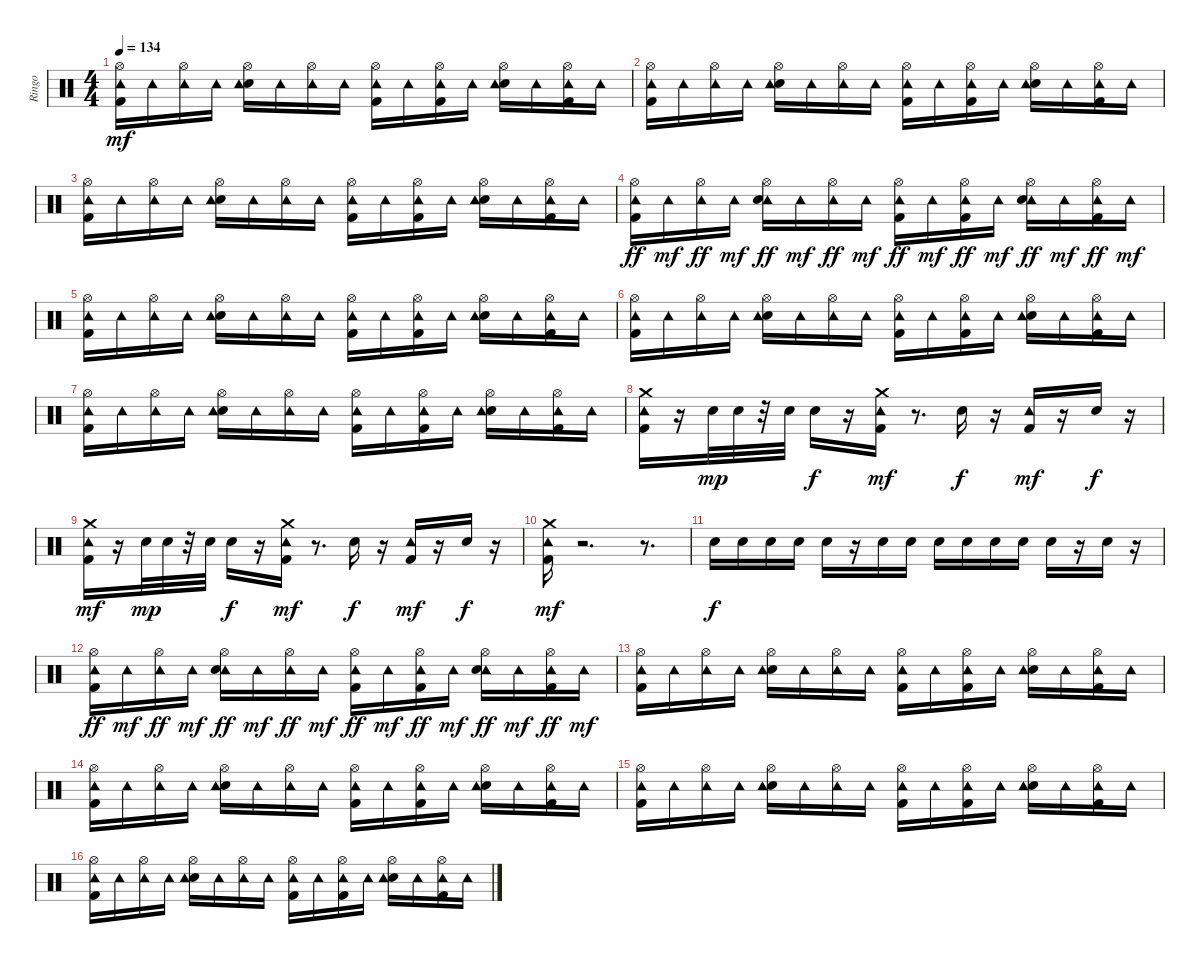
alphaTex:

\track ("Ringo" "Ringo") {instrument percussion}
\staff {score}
\articulation defaults
\ts (4 4)
\tempo 134
\clef neutral
\ks c
("Hi-Hat (open)" "Kick (hit) 2" "Tambourine (hit)").16{dy mf} "Tambourine (hit)".16 ("Hi-Hat (open)" "Tambourine (hit)").16 "Tambourine (hit)".16 ("Hi-Hat (open)" "Snare (hit) 2" "Tambourine (hit)").16 "Tambourine (hit)".16 ("Hi-Hat (open)" "Tambourine (hit)").16 "Tambourine (hit)".16 ("Hi-Hat (open)" "Kick (hit) 2" "Tambourine (hit)").16 "Tambourine (hit)".16 ("Hi-Hat (open)" "Kick (hit) 2" "Tambourine (hit)").16 "Tambourine (hit)".16 ("Hi-Hat (open)" "Snare (hit) 2" "Tambourine (hit)").16 "Tambourine (hit)".16 ("Hi-Hat (open)" "Kick (hit) 2" "Tambourine (hit)").16 "Tambourine (hit)".16 |
("Hi-Hat (open)" "Kick (hit) 2" "Tambourine (hit)").16 "Tambourine (hit)".16 ("Hi-Hat (open)" "Tambourine (hit)").16 "Tambourine (hit)".16 ("Hi-Hat (open)" "Snare (hit) 2" "Tambourine (hit)").16 "Tambourine (hit)".16 ("Hi-Hat (open)" "Tambourine (hit)").16 "Tambourine (hit)".16 ("Hi-Hat (open)" "Kick (hit) 2" "Tambourine (hit)").16 "Tambourine (hit)".16 ("Hi-Hat (open)" "Kick (hit) 2" "Tambourine (hit)").16 "Tambourine (hit)".16 ("Hi-Hat (open)" "Snare (hit) 2" "Tambourine (hit)").16 "Tambourine (hit)".16 ("Hi-Hat (open)" "Kick (hit) 2" "Tambourine (hit)").16 "Tambourine (hit)".16 |
("Hi-Hat (open)" "Kick (hit) 2" "Tambourine (hit)").16 "Tambourine (hit)".16 ("Hi-Hat (open)" "Tambourine (hit)").16 "Tambourine (hit)".16 ("Hi-Hat (open)" "Snare (hit) 2" "Tambourine (hit)").16 "Tambourine (hit)".16 ("Hi-Hat (open)" "Tambourine (hit)").16 "Tambourine (hit)".16 ("Hi-Hat (open)" "Kick (hit) 2" "Tambourine (hit)").16 "Tambourine (hit)".16 ("Hi-Hat (open)" "Kick (hit) 2" "Tambourine (hit)").16 "Tambourine (hit)".16 ("Hi-Hat (open)" "Snare (hit) 2" "Tambourine (hit)").16 "Tambourine (hit)".16 ("Hi-Hat (open)" "Kick (hit) 2" "Tambourine (hit)").16 "Tambourine (hit)".16 |
("Tambourine (hit)" "Kick (hit) 2" "Hi-Hat (open)").16{dy ff} "Tambourine (hit)".16{dy mf} ("Tambourine (hit)" "Hi-Hat (open)").16{dy ff} "Tambourine (hit)".16{dy mf} ("Tambourine (hit)" "Snare (hit) 2" "Hi-Hat (open)").16{dy ff} "Tambourine (hit)".16{dy mf} ("Tambourine (hit)" "Hi-Hat (open)").16{dy ff} "Tambourine (hit)".16{dy mf} ("Tambourine (hit)" "Kick (hit) 2" "Hi-Hat (open)").16{dy ff} "Tambourine (hit)".16{dy mf} ("Tambourine (hit)" "Kick (hit) 2" "Hi-Hat (open)").16{dy ff} "Tambourine (hit)".16{dy mf} ("Tambourine (hit)" "Snare (hit) 2" "Hi-Hat (open)").16{dy ff} "Tambourine (hit)".16{dy mf} ("Tambourine (hit)" "Kick (hit) 2" "Hi-Hat (open)").16{dy ff} "Tambourine (hit)".16{dy mf} |
("Hi-Hat (open)" "Kick (hit) 2" "Tambourine (hit)").16 "Tambourine (hit)".16 ("Hi-Hat (open)" "Tambourine (hit)").16 "Tambourine (hit)".16 ("Hi-Hat (open)" "Snare (hit) 2" "Tambourine (hit)").16 "Tambourine (hit)".16 ("Hi-Hat (open)" "Tambourine (hit)").16 "Tambourine (hit)".16 ("Hi-Hat (open)" "Kick (hit) 2" "Tambourine (hit)").16 "Tambourine (hit)".16 ("Hi-Hat (open)" "Kick (hit) 2" "Tambourine (hit)").16 "Tambourine (hit)".16 ("Hi-Hat (open)" "Snare (hit) 2" "Tambourine (hit)").16 "Tambourine (hit)".16 ("Hi-Hat (open)" "Kick (hit) 2" "Tambourine (hit)").16 "Tambourine (hit)".16 |
("Hi-Hat (open)" "Kick (hit) 2" "Tambourine (hit)").16 "Tambourine (hit)".16 ("Hi-Hat (open)" "Tambourine (hit)").16 "Tambourine (hit)".16 ("Hi-Hat (open)" "Snare (hit) 2" "Tambourine (hit)").16 "Tambourine (hit)".16 ("Hi-Hat (open)" "Tambourine (hit)").16 "Tambourine (hit)".16 ("Hi-Hat (open)" "Kick (hit) 2" "Tambourine (hit)").16 "Tambourine (hit)".16 ("Hi-Hat (open)" "Kick (hit) 2" "Tambourine (hit)").16 "Tambourine (hit)".16 ("Hi-Hat (open)" "Snare (hit) 2" "Tambourine (hit)").16 "Tambourine (hit)".16 ("Hi-Hat (open)" "Kick (hit) 2" "Tambourine (hit)").16 "Tambourine (hit)".16 |
("Hi-Hat (open)" "Kick (hit) 2" "Tambourine (hit)").16 "Tambourine (hit)".16 ("Hi-Hat (open)" "Tambourine (hit)").16 "Tambourine (hit)".16 ("Hi-Hat (open)" "Snare (hit) 2" "Tambourine (hit)").16 "Tambourine (hit)".16 ("Hi-Hat (open)" "Tambourine (hit)").16 "Tambourine (hit)".16 ("Hi-Hat (open)" "Kick (hit) 2" "Tambourine (hit)").16 "Tambourine (hit)".16 ("Hi-Hat (open)" "Kick (hit) 2" "Tambourine (hit)").16 "Tambourine (hit)".16 ("Hi-Hat (open)" "Snare (hit) 2" "Tambourine (hit)").16 "Tambourine (hit)".16 ("Hi-Hat (open)" "Kick (hit) 2" "Tambourine (hit)").16 "Tambourine (hit)".16 |
("Kick (hit) 2" "Crash medium (hit)" "Tambourine (hit)").16 r.16 "Snare (hit) 2".32{dy mp} "Snare (hit) 2".32 r.32 "Snare (hit) 2".32 "Snare (hit) 2".16{dy f} r.16 ("Kick (hit) 2" "Crash medium (hit)" "Tambourine (hit)").16{dy mf} r.8{d} "Snare (hit) 2".16{dy f} r.16 ("Kick (hit) 2" "Tambourine (hit)").16{dy mf} r.16 "Snare (hit) 2".16{dy f} r.16 |
("Crash medium (hit)" "Kick (hit) 2" "Tambourine (hit)").16{dy mf} r.16 "Snare (hit) 2".32{dy mp} "Snare (hit) 2".32 r.32 "Snare (hit) 2".32 "Snare (hit) 2".16{dy f} r.16 ("Crash medium (hit)" "Kick (hit) 2" "Tambourine (hit)").16{dy mf} r.8{d} "Snare (hit) 2".16{dy f} r.16 ("Kick (hit) 2" "Tambourine (hit)").16{dy mf} r.16 "Snare (hit) 2".16{dy f} r.16 |
("Kick (hit) 2" "Crash medium (hit)" "Tambourine (hit)").16{dy mf} r.2{d} r.8{d} |
"Snare (hit) 2".16{dy f} "Snare (hit) 2".16 "Snare (hit) 2".16 "Snare (hit) 2".16 "Snare (hit) 2".16 r.16 "Snare (hit) 2".16 "Snare (hit) 2".16 "Snare (hit) 2".16 "Snare (hit) 2".16 "Snare (hit) 2".16 "Snare (hit) 2".16 "Snare (hit) 2".16 r.16 "Snare (hit) 2".16 r.16 |
("Tambourine (hit)" "Kick (hit) 2" "Hi-Hat (open)").16{dy ff} "Tambourine (hit)".16{dy mf} ("Tambourine (hit)" "Hi-Hat (open)").16{dy ff} "Tambourine (hit)".16{dy mf} ("Tambourine (hit)" "Snare (hit) 2" "Hi-Hat (open)").16{dy ff} "Tambourine (hit)".16{dy mf} ("Tambourine (hit)" "Hi-Hat (open)").16{dy ff} "Tambourine (hit)".16{dy mf} ("Tambourine (hit)" "Kick (hit) 2" "Hi-Hat (open)").16{dy ff} "Tambourine (hit)".16{dy mf} ("Tambourine (hit)" "Kick (hit) 2" "Hi-Hat (open)").16{dy ff} "Tambourine (hit)".16{dy mf} ("Tambourine (hit)" "Snare (hit) 2" "Hi-Hat (open)").16{dy ff} "Tambourine (hit)".16{dy mf} ("Tambourine (hit)" "Kick (hit) 2" "Hi-Hat (open)").16{dy ff} "Tambourine (hit)".16{dy mf} |
("Hi-Hat (open)" "Kick (hit) 2" "Tambourine (hit)").16 "Tambourine (hit)".16 ("Hi-Hat (open)" "Tambourine (hit)").16 "Tambourine (hit)".16 ("Hi-Hat (open)" "Snare (hit) 2" "Tambourine (hit)").16 "Tambourine (hit)".16 ("Hi-Hat (open)" "Tambourine (hit)").16 "Tambourine (hit)".16 ("Hi-Hat (open)" "Kick (hit) 2" "Tambourine (hit)").16 "Tambourine (hit)".16 ("Hi-Hat (open)" "Kick (hit) 2" "Tambourine (hit)").16 "Tambourine (hit)".16 ("Hi-Hat (open)" "Snare (hit) 2" "Tambourine (hit)").16 "Tambourine (hit)".16 ("Hi-Hat (open)" "Kick (hit) 2" "Tambourine (hit)").16 "Tambourine (hit)".16 |
("Hi-Hat (open)" "Kick (hit) 2" "Tambourine (hit)").16 "Tambourine (hit)".16 ("Hi-Hat (open)" "Tambourine (hit)").16 "Tambourine (hit)".16 ("Hi-Hat (open)" "Snare (hit) 2" "Tambourine (hit)").16 "Tambourine (hit)".16 ("Hi-Hat (open)" "Tambourine (hit)").16 "Tambourine (hit)".16 ("Hi-Hat (open)" "Kick (hit) 2" "Tambourine (hit)").16 "Tambourine (hit)".16 ("Hi-Hat (open)" "Kick (hit) 2" "Tambourine (hit)").16 "Tambourine (hit)".16 ("Hi-Hat (open)" "Snare (hit) 2" "Tambourine (hit)").16 "Tambourine (hit)".16 ("Hi-Hat (open)" "Kick (hit) 2" "Tambourine (hit)").16 "Tambourine (hit)".16 |
("Hi-Hat (open)" "Kick (hit) 2" "Tambourine (hit)").16 "Tambourine (hit)".16 ("Hi-Hat (open)" "Tambourine (hit)").16 "Tambourine (hit)".16 ("Hi-Hat (open)" "Snare (hit) 2" "Tambourine (hit)").16 "Tambourine (hit)".16 ("Hi-Hat (open)" "Tambourine (hit)").16 "Tambourine (hit)".16 ("Hi-Hat (open)" "Kick (hit) 2" "Tambourine (hit)").16 "Tambourine (hit)".16 ("Hi-Hat (open)" "Kick (hit) 2" "Tambourine (hit)").16 "Tambourine (hit)".16 ("Hi-Hat (open)" "Snare (hit) 2" "Tambourine (hit)").16 "Tambourine (hit)".16 ("Hi-Hat (open)" "Kick (hit) 2" "Tambourine (hit)").16 "Tambourine (hit)".16 |
("Hi-Hat (open)" "Kick (hit) 2" "Tambourine (hit)").16 "Tambourine (hit)".16 ("Hi-Hat (open)" "Tambourine (hit)").16 "Tambourine (hit)".16 ("Hi-Hat (open)" "Snare (hit) 2" "Tambourine (hit)").16 "Tambourine (hit)".16 ("Hi-Hat (open)" "Tambourine (hit)").16 "Tambourine (hit)".16 ("Hi-Hat (open)" "Kick (hit) 2" "Tambourine (hit)").16 "Tambourine (hit)".16 ("Hi-Hat (open)" "Kick (hit) 2" "Tambourine (hit)").16 "Tambourine (hit)".16 ("Hi-Hat (open)" "Snare (hit) 2" "Tambourine (hit)").16 "Tambourine (hit)".16 ("Hi-Hat (open)" "Kick (hit) 2" "Tambourine (hit)").16 "Tambourine (hit)".16
